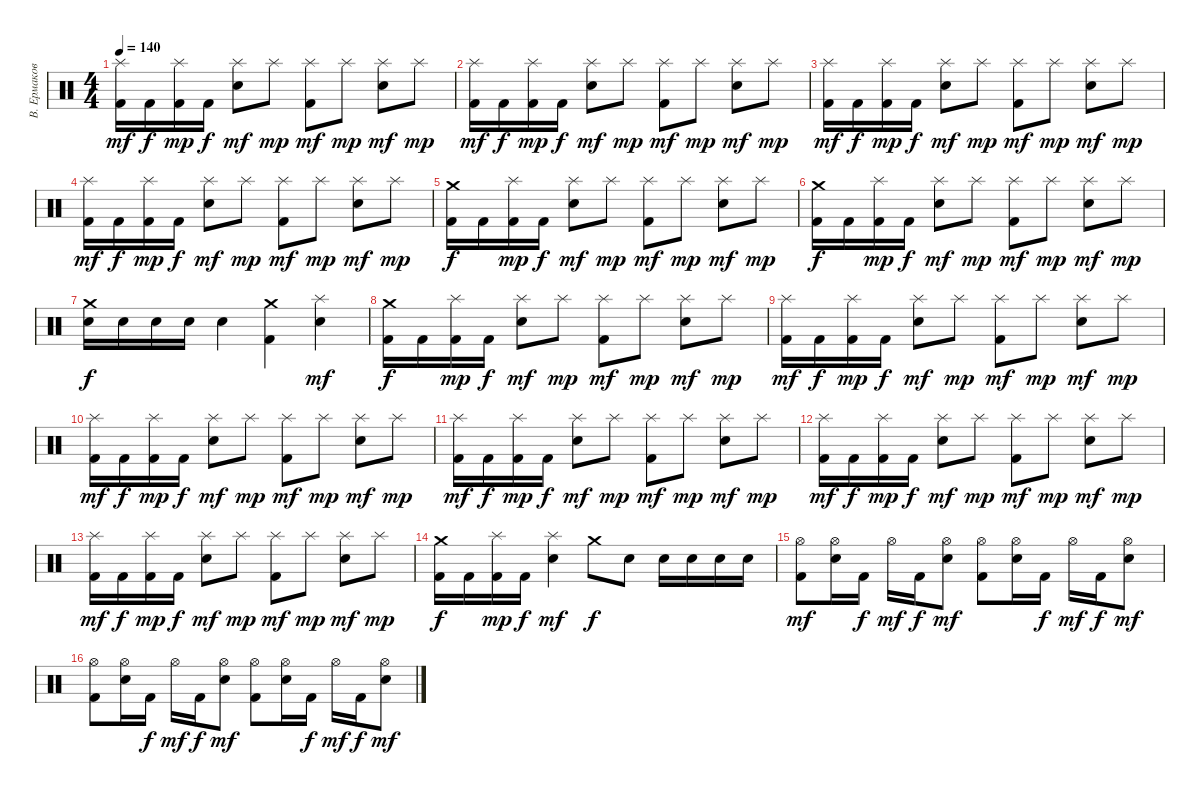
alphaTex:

\track ("В. Ермаков" "В. Ермаков") {instrument percussion}
\staff {score}
\articulation defaults
\ts (4 4)
\tempo 140
\clef neutral
\ks c
("Kick (hit) 2" "Splash (hit)").16{dy mf} "Kick (hit) 2".16{dy f} ("Kick (hit) 2" "Splash (hit)").16{dy mp} "Kick (hit) 2".16{dy f} ("Electric Snare (hit)" "Splash (hit)").8{dy mf} "Splash (hit)".8{dy mp} ("Kick (hit) 2" "Splash (hit)").8{dy mf} "Splash (hit)".8{dy mp} ("Electric Snare (hit)" "Splash (hit)").8{dy mf} "Splash (hit)".8{dy mp} |
("Kick (hit) 2" "Splash (hit)").16{dy mf} "Kick (hit) 2".16{dy f} ("Kick (hit) 2" "Splash (hit)").16{dy mp} "Kick (hit) 2".16{dy f} ("Electric Snare (hit)" "Splash (hit)").8{dy mf} "Splash (hit)".8{dy mp} ("Kick (hit) 2" "Splash (hit)").8{dy mf} "Splash (hit)".8{dy mp} ("Electric Snare (hit)" "Splash (hit)").8{dy mf} "Splash (hit)".8{dy mp} |
("Kick (hit) 2" "Splash (hit)").16{dy mf} "Kick (hit) 2".16{dy f} ("Kick (hit) 2" "Splash (hit)").16{dy mp} "Kick (hit) 2".16{dy f} ("Electric Snare (hit)" "Splash (hit)").8{dy mf} "Splash (hit)".8{dy mp} ("Kick (hit) 2" "Splash (hit)").8{dy mf} "Splash (hit)".8{dy mp} ("Electric Snare (hit)" "Splash (hit)").8{dy mf} "Splash (hit)".8{dy mp} |
("Kick (hit) 2" "Splash (hit)").16{dy mf} "Kick (hit) 2".16{dy f} ("Kick (hit) 2" "Splash (hit)").16{dy mp} "Kick (hit) 2".16{dy f} ("Electric Snare (hit)" "Splash (hit)").8{dy mf} "Splash (hit)".8{dy mp} ("Kick (hit) 2" "Splash (hit)").8{dy mf} "Splash (hit)".8{dy mp} ("Electric Snare (hit)" "Splash (hit)").8{dy mf} "Splash (hit)".8{dy mp} |
("Kick (hit) 2" "Crash medium (hit)").16{dy f} "Kick (hit) 2".16 ("Kick (hit) 2" "Splash (hit)").16{dy mp} "Kick (hit) 2".16{dy f} ("Electric Snare (hit)" "Splash (hit)").8{dy mf} "Splash (hit)".8{dy mp} ("Kick (hit) 2" "Splash (hit)").8{dy mf} "Splash (hit)".8{dy mp} ("Electric Snare (hit)" "Splash (hit)").8{dy mf} "Splash (hit)".8{dy mp} |
("Kick (hit) 2" "Crash medium (hit)").16{dy f} "Kick (hit) 2".16 ("Kick (hit) 2" "Splash (hit)").16{dy mp} "Kick (hit) 2".16{dy f} ("Electric Snare (hit)" "Splash (hit)").8{dy mf} "Splash (hit)".8{dy mp} ("Kick (hit) 2" "Splash (hit)").8{dy mf} "Splash (hit)".8{dy mp} ("Electric Snare (hit)" "Splash (hit)").8{dy mf} "Splash (hit)".8{dy mp} |
("Electric Snare (hit)" "Crash medium (hit)").16{dy f} "Electric Snare (hit)".16 "Electric Snare (hit)".16 "Electric Snare (hit)".16 "Electric Snare (hit)".4 ("Kick (hit) 2" "Crash medium (hit)").4 ("Electric Snare (hit)" "Splash (hit)").4{dy mf} |
("Kick (hit) 2" "Crash medium (hit)").16{dy f} "Kick (hit) 2".16 ("Kick (hit) 2" "Splash (hit)").16{dy mp} "Kick (hit) 2".16{dy f} ("Electric Snare (hit)" "Splash (hit)").8{dy mf} "Splash (hit)".8{dy mp} ("Kick (hit) 2" "Splash (hit)").8{dy mf} "Splash (hit)".8{dy mp} ("Electric Snare (hit)" "Splash (hit)").8{dy mf} "Splash (hit)".8{dy mp} |
("Kick (hit) 2" "Splash (hit)").16{dy mf} "Kick (hit) 2".16{dy f} ("Kick (hit) 2" "Splash (hit)").16{dy mp} "Kick (hit) 2".16{dy f} ("Electric Snare (hit)" "Splash (hit)").8{dy mf} "Splash (hit)".8{dy mp} ("Kick (hit) 2" "Splash (hit)").8{dy mf} "Splash (hit)".8{dy mp} ("Electric Snare (hit)" "Splash (hit)").8{dy mf} "Splash (hit)".8{dy mp} |
("Kick (hit) 2" "Splash (hit)").16{dy mf} "Kick (hit) 2".16{dy f} ("Kick (hit) 2" "Splash (hit)").16{dy mp} "Kick (hit) 2".16{dy f} ("Electric Snare (hit)" "Splash (hit)").8{dy mf} "Splash (hit)".8{dy mp} ("Kick (hit) 2" "Splash (hit)").8{dy mf} "Splash (hit)".8{dy mp} ("Electric Snare (hit)" "Splash (hit)").8{dy mf} "Splash (hit)".8{dy mp} |
("Kick (hit) 2" "Splash (hit)").16{dy mf} "Kick (hit) 2".16{dy f} ("Kick (hit) 2" "Splash (hit)").16{dy mp} "Kick (hit) 2".16{dy f} ("Electric Snare (hit)" "Splash (hit)").8{dy mf} "Splash (hit)".8{dy mp} ("Kick (hit) 2" "Splash (hit)").8{dy mf} "Splash (hit)".8{dy mp} ("Electric Snare (hit)" "Splash (hit)").8{dy mf} "Splash (hit)".8{dy mp} |
("Kick (hit) 2" "Splash (hit)").16{dy mf} "Kick (hit) 2".16{dy f} ("Kick (hit) 2" "Splash (hit)").16{dy mp} "Kick (hit) 2".16{dy f} ("Electric Snare (hit)" "Splash (hit)").8{dy mf} "Splash (hit)".8{dy mp} ("Kick (hit) 2" "Splash (hit)").8{dy mf} "Splash (hit)".8{dy mp} ("Electric Snare (hit)" "Splash (hit)").8{dy mf} "Splash (hit)".8{dy mp} |
("Kick (hit) 2" "Splash (hit)").16{dy mf} "Kick (hit) 2".16{dy f} ("Kick (hit) 2" "Splash (hit)").16{dy mp} "Kick (hit) 2".16{dy f} ("Electric Snare (hit)" "Splash (hit)").8{dy mf} "Splash (hit)".8{dy mp} ("Kick (hit) 2" "Splash (hit)").8{dy mf} "Splash (hit)".8{dy mp} ("Electric Snare (hit)" "Splash (hit)").8{dy mf} "Splash (hit)".8{dy mp} |
("Kick (hit) 2" "Crash medium (hit)").16{dy f} "Kick (hit) 2".16 ("Kick (hit) 2" "Splash (hit)").16{dy mp} "Kick (hit) 2".16{dy f} ("Electric Snare (hit)" "Splash (hit)").4{dy mf} "Crash medium (hit)".8{dy f} "Electric Snare (hit)".8 "Electric Snare (hit)".16 "Electric Snare (hit)".16 "Electric Snare (hit)".16 "Electric Snare (hit)".16 |
("Hi-Hat (open)" "Kick (hit) 2").8{dy mf} ("Hi-Hat (open)" "Electric Snare (hit)").16 "Kick (hit) 2".16{dy f} "Hi-Hat (open)".16{dy mf} "Kick (hit) 2".16{dy f} ("Hi-Hat (open)" "Electric Snare (hit)").8{dy mf} ("Hi-Hat (open)" "Kick (hit) 2").8 ("Hi-Hat (open)" "Electric Snare (hit)").16 "Kick (hit) 2".16{dy f} "Hi-Hat (open)".16{dy mf} "Kick (hit) 2".16{dy f} ("Hi-Hat (open)" "Electric Snare (hit)").8{dy mf} |
("Hi-Hat (open)" "Kick (hit) 2").8 ("Hi-Hat (open)" "Electric Snare (hit)").16 "Kick (hit) 2".16{dy f} "Hi-Hat (open)".16{dy mf} "Kick (hit) 2".16{dy f} ("Hi-Hat (open)" "Electric Snare (hit)").8{dy mf} ("Hi-Hat (open)" "Kick (hit) 2").8 ("Hi-Hat (open)" "Electric Snare (hit)").16 "Kick (hit) 2".16{dy f} "Hi-Hat (open)".16{dy mf} "Kick (hit) 2".16{dy f} ("Hi-Hat (open)" "Electric Snare (hit)").8{dy mf}
